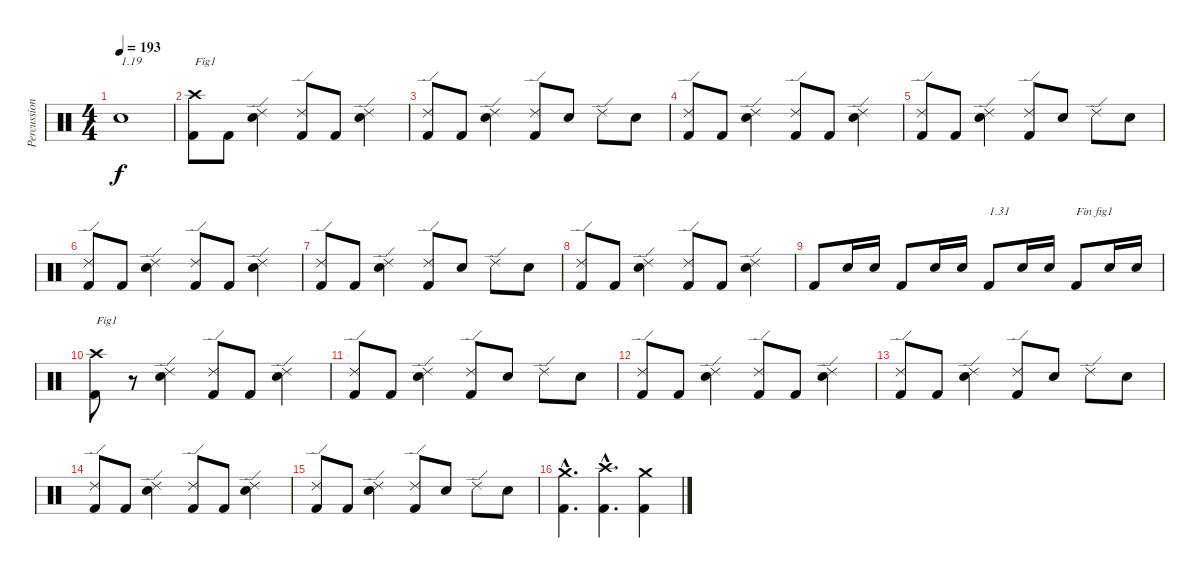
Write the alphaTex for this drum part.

\track ("Percussions" "Percussion") {instrument percussion}
\staff {score}
\articulation defaults
\ts (4 4)
\tempo 193
\clef neutral
\ks c "Electric Snare (hit)".1{txt "1.19" dy f}
|
("Kick (hit) 2" "Crash high (hit)").8{txt "Fig1"} "Kick (hit) 2".8 ("Electric Snare (hit)" "Ride (edge) 2").4 ("Kick (hit) 2" "Ride (edge) 2").8 "Kick (hit) 2".8 ("Electric Snare (hit)" "Ride (edge) 2").4 |
("Kick (hit) 2" "Ride (edge) 2").8 "Kick (hit) 2".8 ("Electric Snare (hit)" "Ride (edge) 2").4 ("Kick (hit) 2" "Ride (edge) 2").8 "Electric Snare (hit)".8 "Ride (edge) 2".8 "Electric Snare (hit)".8 |
("Kick (hit) 2" "Ride (edge) 2").8 "Kick (hit) 2".8 ("Electric Snare (hit)" "Ride (edge) 2").4 ("Kick (hit) 2" "Ride (edge) 2").8 "Kick (hit) 2".8 ("Electric Snare (hit)" "Ride (edge) 2").4 |
("Kick (hit) 2" "Ride (edge) 2").8 "Kick (hit) 2".8 ("Electric Snare (hit)" "Ride (edge) 2").4 ("Kick (hit) 2" "Ride (edge) 2").8 "Electric Snare (hit)".8 "Ride (edge) 2".8 "Electric Snare (hit)".8 |
("Kick (hit) 2" "Ride (edge) 2").8 "Kick (hit) 2".8 ("Electric Snare (hit)" "Ride (edge) 2").4 ("Kick (hit) 2" "Ride (edge) 2").8 "Kick (hit) 2".8 ("Electric Snare (hit)" "Ride (edge) 2").4 |
("Kick (hit) 2" "Ride (edge) 2").8 "Kick (hit) 2".8 ("Electric Snare (hit)" "Ride (edge) 2").4 ("Kick (hit) 2" "Ride (edge) 2").8 "Electric Snare (hit)".8 "Ride (edge) 2".8 "Electric Snare (hit)".8 |
("Kick (hit) 2" "Ride (edge) 2").8 "Kick (hit) 2".8 ("Electric Snare (hit)" "Ride (edge) 2").4 ("Kick (hit) 2" "Ride (edge) 2").8 "Kick (hit) 2".8 ("Electric Snare (hit)" "Ride (edge) 2").4 |
"Kick (hit) 2".8 "Electric Snare (hit)".16 "Electric Snare (hit)".16 "Kick (hit) 2".8 "Electric Snare (hit)".16 "Electric Snare (hit)".16 "Kick (hit) 2".8{txt "1.31"} "Electric Snare (hit)".16 "Electric Snare (hit)".16 "Kick (hit) 2".8{txt "Fin fig1"} "Electric Snare (hit)".16 "Electric Snare (hit)".16 |
("Kick (hit) 2" "Crash high (hit)").8{txt "Fig1"} r.8 ("Electric Snare (hit)" "Ride (edge) 2").4 ("Kick (hit) 2" "Ride (edge) 2").8 "Kick (hit) 2".8 ("Electric Snare (hit)" "Ride (edge) 2").4 |
("Kick (hit) 2" "Ride (edge) 2").8 "Kick (hit) 2".8 ("Electric Snare (hit)" "Ride (edge) 2").4 ("Kick (hit) 2" "Ride (edge) 2").8 "Electric Snare (hit)".8 "Ride (edge) 2".8 "Electric Snare (hit)".8 |
("Kick (hit) 2" "Ride (edge) 2").8 "Kick (hit) 2".8 ("Electric Snare (hit)" "Ride (edge) 2").4 ("Kick (hit) 2" "Ride (edge) 2").8 "Kick (hit) 2".8 ("Electric Snare (hit)" "Ride (edge) 2").4 |
("Kick (hit) 2" "Ride (edge) 2").8 "Kick (hit) 2".8 ("Electric Snare (hit)" "Ride (edge) 2").4 ("Kick (hit) 2" "Ride (edge) 2").8 "Electric Snare (hit)".8 "Ride (edge) 2".8 "Electric Snare (hit)".8 |
("Kick (hit) 2" "Ride (edge) 2").8 "Kick (hit) 2".8 ("Electric Snare (hit)" "Ride (edge) 2").4 ("Kick (hit) 2" "Ride (edge) 2").8 "Kick (hit) 2".8 ("Electric Snare (hit)" "Ride (edge) 2").4 |
("Kick (hit) 2" "Ride (edge) 2").8 "Kick (hit) 2".8 ("Electric Snare (hit)" "Ride (edge) 2").4 ("Kick (hit) 2" "Ride (edge) 2").8 "Electric Snare (hit)".8 "Ride (edge) 2".8 "Electric Snare (hit)".8 |
("Kick (hit) 2"{hac} "Crash medium (hit)"{hac}).4{d} ("Kick (hit) 2"{hac} "Crash high (hit)"{hac}).4{d} ("Kick (hit) 2" "Crash medium (hit)").4
